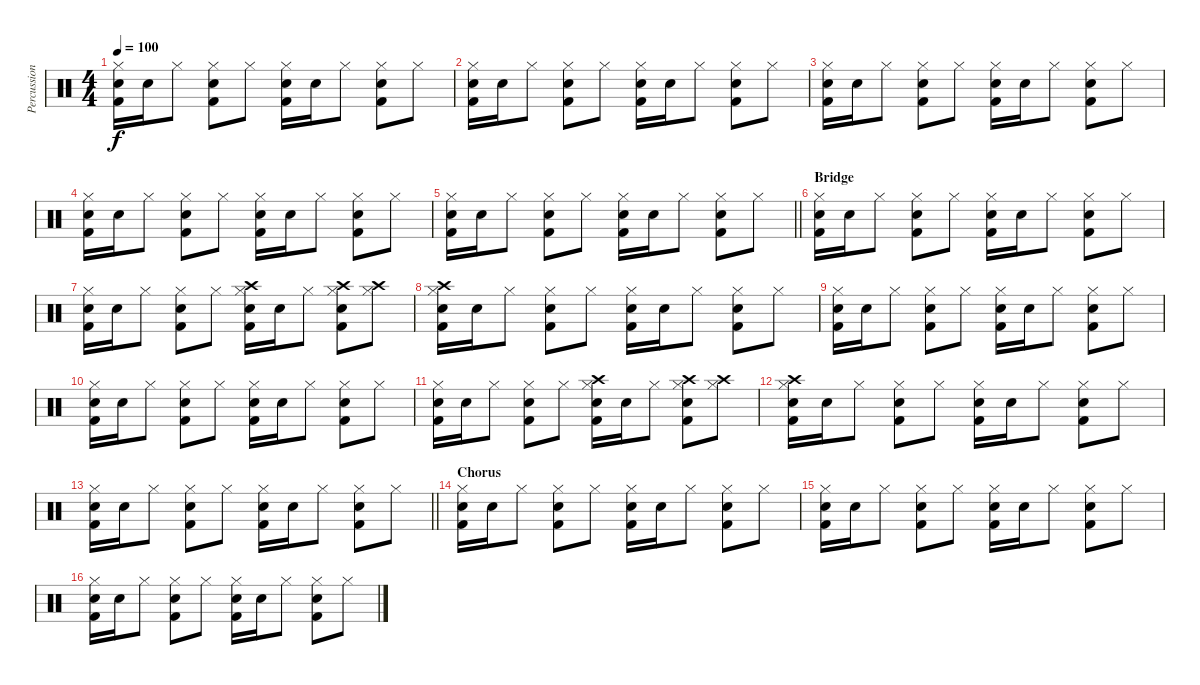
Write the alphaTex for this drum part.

\track ("Percussion" "Percussion") {instrument percussion}
\staff {score}
\articulation defaults
\ts (4 4)
\tempo 100
\clef neutral
\ks c
("Snare (hit) 2" "Hi-Hat (closed)" "Kick (hit) 2").16{dy f} "Snare (hit) 2".16 "Hi-Hat (closed)".8 ("Snare (hit) 2" "Hi-Hat (closed)" "Kick (hit) 2").8 "Hi-Hat (closed)".8 ("Snare (hit) 2" "Hi-Hat (closed)" "Kick (hit) 2").16 "Snare (hit) 2".16 "Hi-Hat (closed)".8 ("Snare (hit) 2" "Hi-Hat (closed)" "Kick (hit) 2").8 "Hi-Hat (closed)".8 |
("Snare (hit) 2" "Hi-Hat (closed)" "Kick (hit) 2").16 "Snare (hit) 2".16 "Hi-Hat (closed)".8 ("Snare (hit) 2" "Hi-Hat (closed)" "Kick (hit) 2").8 "Hi-Hat (closed)".8 ("Snare (hit) 2" "Hi-Hat (closed)" "Kick (hit) 2").16 "Snare (hit) 2".16 "Hi-Hat (closed)".8 ("Snare (hit) 2" "Hi-Hat (closed)" "Kick (hit) 2").8 "Hi-Hat (closed)".8 |
("Snare (hit) 2" "Hi-Hat (closed)" "Kick (hit) 2").16 "Snare (hit) 2".16 "Hi-Hat (closed)".8 ("Snare (hit) 2" "Hi-Hat (closed)" "Kick (hit) 2").8 "Hi-Hat (closed)".8 ("Snare (hit) 2" "Hi-Hat (closed)" "Kick (hit) 2").16 "Snare (hit) 2".16 "Hi-Hat (closed)".8 ("Snare (hit) 2" "Hi-Hat (closed)" "Kick (hit) 2").8 "Hi-Hat (closed)".8 |
("Snare (hit) 2" "Hi-Hat (closed)" "Kick (hit) 2").16 "Snare (hit) 2".16 "Hi-Hat (closed)".8 ("Snare (hit) 2" "Hi-Hat (closed)" "Kick (hit) 2").8 "Hi-Hat (closed)".8 ("Snare (hit) 2" "Hi-Hat (closed)" "Kick (hit) 2").16 "Snare (hit) 2".16 "Hi-Hat (closed)".8 ("Snare (hit) 2" "Hi-Hat (closed)" "Kick (hit) 2").8 "Hi-Hat (closed)".8 |
\barLineRight lightlight
("Snare (hit) 2" "Hi-Hat (closed)" "Kick (hit) 2").16 "Snare (hit) 2".16 "Hi-Hat (closed)".8 ("Snare (hit) 2" "Hi-Hat (closed)" "Kick (hit) 2").8 "Hi-Hat (closed)".8 ("Snare (hit) 2" "Hi-Hat (closed)" "Kick (hit) 2").16 "Snare (hit) 2".16 "Hi-Hat (closed)".8 ("Snare (hit) 2" "Hi-Hat (closed)" "Kick (hit) 2").8 "Hi-Hat (closed)".8 |
\section ("" "Bridge")
("Snare (hit) 2" "Hi-Hat (closed)" "Kick (hit) 2").16 "Snare (hit) 2".16 "Hi-Hat (closed)".8 ("Snare (hit) 2" "Hi-Hat (closed)" "Kick (hit) 2").8 "Hi-Hat (closed)".8 ("Snare (hit) 2" "Hi-Hat (closed)" "Kick (hit) 2").16 "Snare (hit) 2".16 "Hi-Hat (closed)".8 ("Snare (hit) 2" "Hi-Hat (closed)" "Kick (hit) 2").8 "Hi-Hat (closed)".8 |
("Snare (hit) 2" "Hi-Hat (closed)" "Kick (hit) 2").16 "Snare (hit) 2".16 "Hi-Hat (closed)".8 ("Snare (hit) 2" "Hi-Hat (closed)" "Kick (hit) 2").8 "Hi-Hat (closed)".8 ("Snare (hit) 2" "Crash high (hit)" "Hi-Hat (closed)" "Kick (hit) 2").16 "Snare (hit) 2".16 "Hi-Hat (closed)".8 ("Snare (hit) 2" "Crash high (hit)" "Hi-Hat (closed)" "Kick (hit) 2").8 ("Crash high (hit)" "Hi-Hat (closed)").8 |
("Snare (hit) 2" "Crash high (hit)" "Hi-Hat (closed)" "Kick (hit) 2").16 "Snare (hit) 2".16 "Hi-Hat (closed)".8 ("Snare (hit) 2" "Hi-Hat (closed)" "Kick (hit) 2").8 "Hi-Hat (closed)".8 ("Snare (hit) 2" "Hi-Hat (closed)" "Kick (hit) 2").16 "Snare (hit) 2".16 "Hi-Hat (closed)".8 ("Snare (hit) 2" "Hi-Hat (closed)" "Kick (hit) 2").8 "Hi-Hat (closed)".8 |
("Snare (hit) 2" "Hi-Hat (closed)" "Kick (hit) 2").16 "Snare (hit) 2".16 "Hi-Hat (closed)".8 ("Snare (hit) 2" "Hi-Hat (closed)" "Kick (hit) 2").8 "Hi-Hat (closed)".8 ("Snare (hit) 2" "Hi-Hat (closed)" "Kick (hit) 2").16 "Snare (hit) 2".16 "Hi-Hat (closed)".8 ("Snare (hit) 2" "Hi-Hat (closed)" "Kick (hit) 2").8 "Hi-Hat (closed)".8 |
("Snare (hit) 2" "Hi-Hat (closed)" "Kick (hit) 2").16 "Snare (hit) 2".16 "Hi-Hat (closed)".8 ("Snare (hit) 2" "Hi-Hat (closed)" "Kick (hit) 2").8 "Hi-Hat (closed)".8 ("Snare (hit) 2" "Hi-Hat (closed)" "Kick (hit) 2").16 "Snare (hit) 2".16 "Hi-Hat (closed)".8 ("Snare (hit) 2" "Hi-Hat (closed)" "Kick (hit) 2").8 "Hi-Hat (closed)".8 |
("Snare (hit) 2" "Hi-Hat (closed)" "Kick (hit) 2").16 "Snare (hit) 2".16 "Hi-Hat (closed)".8 ("Snare (hit) 2" "Hi-Hat (closed)" "Kick (hit) 2").8 "Hi-Hat (closed)".8 ("Snare (hit) 2" "Crash high (hit)" "Hi-Hat (closed)" "Kick (hit) 2").16 "Snare (hit) 2".16 "Hi-Hat (closed)".8 ("Snare (hit) 2" "Crash high (hit)" "Hi-Hat (closed)" "Kick (hit) 2").8 ("Crash high (hit)" "Hi-Hat (closed)").8 |
("Snare (hit) 2" "Crash high (hit)" "Hi-Hat (closed)" "Kick (hit) 2").16 "Snare (hit) 2".16 "Hi-Hat (closed)".8 ("Snare (hit) 2" "Hi-Hat (closed)" "Kick (hit) 2").8 "Hi-Hat (closed)".8 ("Snare (hit) 2" "Hi-Hat (closed)" "Kick (hit) 2").16 "Snare (hit) 2".16 "Hi-Hat (closed)".8 ("Snare (hit) 2" "Hi-Hat (closed)" "Kick (hit) 2").8 "Hi-Hat (closed)".8 |
\barLineRight lightlight
("Snare (hit) 2" "Hi-Hat (closed)" "Kick (hit) 2").16 "Snare (hit) 2".16 "Hi-Hat (closed)".8 ("Snare (hit) 2" "Hi-Hat (closed)" "Kick (hit) 2").8 "Hi-Hat (closed)".8 ("Snare (hit) 2" "Hi-Hat (closed)" "Kick (hit) 2").16 "Snare (hit) 2".16 "Hi-Hat (closed)".8 ("Snare (hit) 2" "Hi-Hat (closed)" "Kick (hit) 2").8 "Hi-Hat (closed)".8 |
\section ("" "Chorus")
("Snare (hit) 2" "Hi-Hat (closed)" "Kick (hit) 2").16 "Snare (hit) 2".16 "Hi-Hat (closed)".8 ("Snare (hit) 2" "Hi-Hat (closed)" "Kick (hit) 2").8 "Hi-Hat (closed)".8 ("Snare (hit) 2" "Hi-Hat (closed)" "Kick (hit) 2").16 "Snare (hit) 2".16 "Hi-Hat (closed)".8 ("Snare (hit) 2" "Hi-Hat (closed)" "Kick (hit) 2").8 "Hi-Hat (closed)".8 |
("Snare (hit) 2" "Hi-Hat (closed)" "Kick (hit) 2").16 "Snare (hit) 2".16 "Hi-Hat (closed)".8 ("Snare (hit) 2" "Hi-Hat (closed)" "Kick (hit) 2").8 "Hi-Hat (closed)".8 ("Snare (hit) 2" "Hi-Hat (closed)" "Kick (hit) 2").16 "Snare (hit) 2".16 "Hi-Hat (closed)".8 ("Snare (hit) 2" "Hi-Hat (closed)" "Kick (hit) 2").8 "Hi-Hat (closed)".8 |
("Snare (hit) 2" "Hi-Hat (closed)" "Kick (hit) 2").16 "Snare (hit) 2".16 "Hi-Hat (closed)".8 ("Snare (hit) 2" "Hi-Hat (closed)" "Kick (hit) 2").8 "Hi-Hat (closed)".8 ("Snare (hit) 2" "Hi-Hat (closed)" "Kick (hit) 2").16 "Snare (hit) 2".16 "Hi-Hat (closed)".8 ("Snare (hit) 2" "Hi-Hat (closed)" "Kick (hit) 2").8 "Hi-Hat (closed)".8
